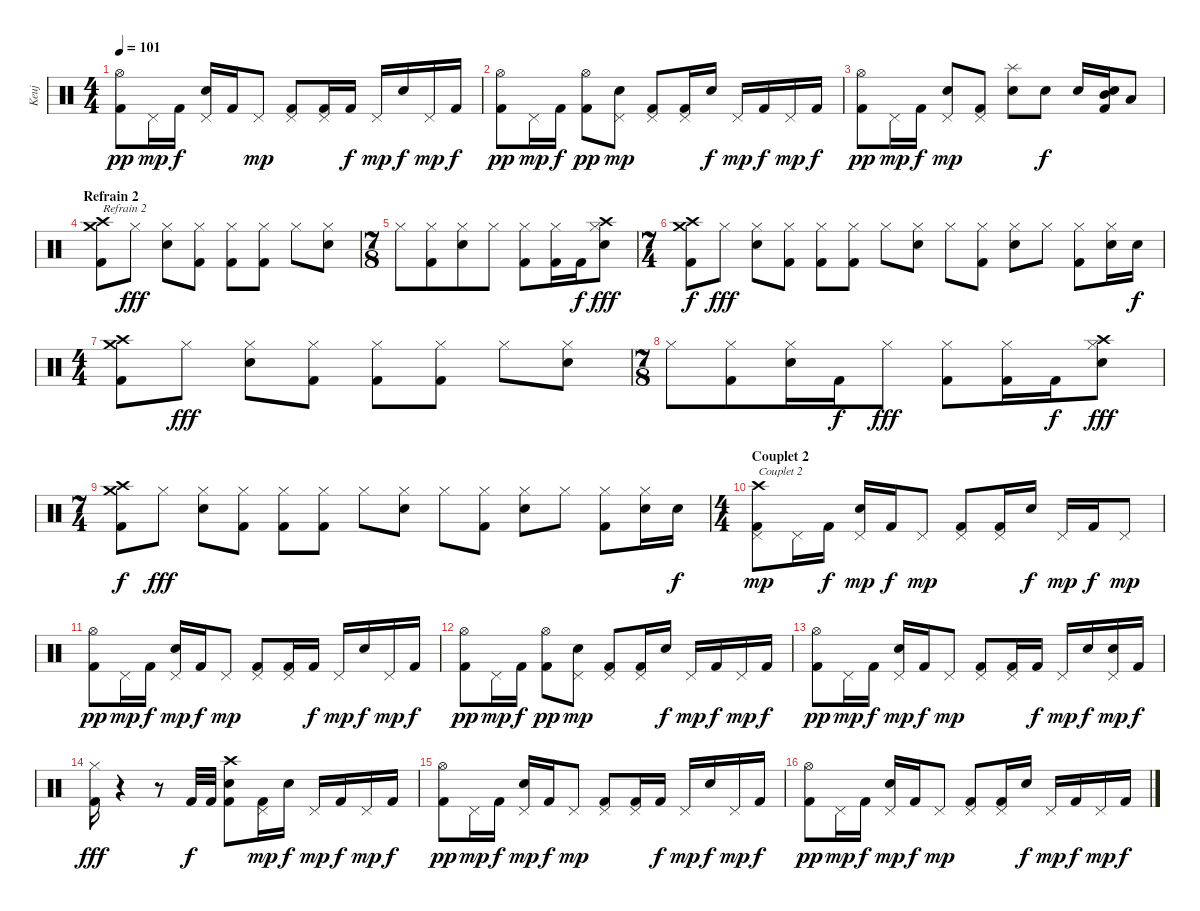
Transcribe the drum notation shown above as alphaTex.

\track ("Keuj" "Keuj") {instrument percussion}
\staff {score}
\articulation defaults
\ts (4 4)
\tempo 101
\clef neutral
\ks c
("Hi-Hat (open)" "Kick (hit) 2").8{dy pp} "Pedal Hi-Hat (hit)".16{dy mp} "Kick (hit) 2".16{dy f} ("Electric Snare (hit)" "Pedal Hi-Hat (hit)").16 "Kick (hit) 2".16 "Pedal Hi-Hat (hit)".8{dy mp} ("Pedal Hi-Hat (hit)" "Kick (hit) 2").8 ("Pedal Hi-Hat (hit)" "Kick (hit) 2").16 "Kick (hit) 2".16{dy f} "Pedal Hi-Hat (hit)".16{dy mp} "Electric Snare (hit)".16{dy f} "Pedal Hi-Hat (hit)".16{dy mp} "Kick (hit) 2".16{dy f} |
("Hi-Hat (open)" "Kick (hit) 2").8{dy pp} "Pedal Hi-Hat (hit)".16{dy mp} "Kick (hit) 2".16{dy f} ("Hi-Hat (open)" "Kick (hit) 2").8{dy pp} ("Electric Snare (hit)" "Pedal Hi-Hat (hit)").8{dy mp} ("Pedal Hi-Hat (hit)" "Kick (hit) 2").8 ("Pedal Hi-Hat (hit)" "Kick (hit) 2").16 "Electric Snare (hit)".16{dy f} "Pedal Hi-Hat (hit)".16{dy mp} "Kick (hit) 2".16{dy f} "Pedal Hi-Hat (hit)".16{dy mp} "Kick (hit) 2".16{dy f} |
("Hi-Hat (open)" "Kick (hit) 2").8{dy pp} "Pedal Hi-Hat (hit)".16{dy mp} "Kick (hit) 2".16{dy f} ("Electric Snare (hit)" "Pedal Hi-Hat (hit)").8{dy mp} ("Pedal Hi-Hat (hit)" "Kick (hit) 2").8 ("Splash (hit)" "Electric Snare (hit)").8 "Electric Snare (hit)".8{dy f} "Electric Snare (hit)".16 ("Mid Tom (hit)" "Electric Snare (hit)" "Kick (hit) 2").16 "Low Tom (hit)".8 |
\section ("" "Refrain 2")
("Crash medium (hit)" "Crash high (hit)" "Kick (hit) 2").8{txt "Refrain 2"} "Hi-Hat (closed)".8{dy fff} ("Electric Snare (hit)" "Hi-Hat (closed)").8 ("Hi-Hat (closed)" "Kick (hit) 2").8 ("Hi-Hat (closed)" "Kick (hit) 2").8 ("Hi-Hat (closed)" "Kick (hit) 2").8 "Hi-Hat (closed)".8 ("Electric Snare (hit)" "Hi-Hat (closed)").8 |
\ts (7 8)
"Hi-Hat (closed)".8 ("Hi-Hat (closed)" "Kick (hit) 2").8 ("Electric Snare (hit)" "Hi-Hat (closed)").8 "Hi-Hat (closed)".8 ("Hi-Hat (closed)" "Kick (hit) 2").8 ("Hi-Hat (closed)" "Kick (hit) 2").16 "Kick (hit) 2".16{dy f} ("Crash high (hit)" "Electric Snare (hit)" "Hi-Hat (closed)").8{dy fff} |
\ts (7 4)
("Crash medium (hit)" "Crash high (hit)" "Kick (hit) 2").8{dy f} "Hi-Hat (closed)".8{dy fff} ("Electric Snare (hit)" "Hi-Hat (closed)").8 ("Hi-Hat (closed)" "Kick (hit) 2").8 ("Hi-Hat (closed)" "Kick (hit) 2").8 ("Hi-Hat (closed)" "Kick (hit) 2").8 "Hi-Hat (closed)".8 ("Electric Snare (hit)" "Hi-Hat (closed)").8 "Hi-Hat (closed)".8 ("Hi-Hat (closed)" "Kick (hit) 2").8 ("Electric Snare (hit)" "Hi-Hat (closed)").8 "Hi-Hat (closed)".8 ("Hi-Hat (closed)" "Kick (hit) 2").8 ("Electric Snare (hit)" "Hi-Hat (closed)").16 "Electric Snare (hit)".16{dy f} |
\ts (4 4)
("Crash medium (hit)" "Crash high (hit)" "Kick (hit) 2").8 "Hi-Hat (closed)".8{dy fff} ("Electric Snare (hit)" "Hi-Hat (closed)").8 ("Hi-Hat (closed)" "Kick (hit) 2").8 ("Hi-Hat (closed)" "Kick (hit) 2").8 ("Hi-Hat (closed)" "Kick (hit) 2").8 "Hi-Hat (closed)".8 ("Electric Snare (hit)" "Hi-Hat (closed)").8 |
\ts (7 8)
"Hi-Hat (closed)".8 ("Hi-Hat (closed)" "Kick (hit) 2").8 ("Electric Snare (hit)" "Hi-Hat (closed)").16 "Kick (hit) 2".16{dy f} "Hi-Hat (closed)".8{dy fff} ("Hi-Hat (closed)" "Kick (hit) 2").8 ("Hi-Hat (closed)" "Kick (hit) 2").16 "Kick (hit) 2".16{dy f} ("Crash high (hit)" "Electric Snare (hit)" "Hi-Hat (closed)").8{dy fff} |
\ts (7 4)
("Crash medium (hit)" "Crash high (hit)" "Kick (hit) 2").8{dy f} "Hi-Hat (closed)".8{dy fff} ("Electric Snare (hit)" "Hi-Hat (closed)").8 ("Hi-Hat (closed)" "Kick (hit) 2").8 ("Hi-Hat (closed)" "Kick (hit) 2").8 ("Hi-Hat (closed)" "Kick (hit) 2").8 "Hi-Hat (closed)".8 ("Electric Snare (hit)" "Hi-Hat (closed)").8 "Hi-Hat (closed)".8 ("Hi-Hat (closed)" "Kick (hit) 2").8 ("Electric Snare (hit)" "Hi-Hat (closed)").8 "Hi-Hat (closed)".8 ("Hi-Hat (closed)" "Kick (hit) 2").8 ("Electric Snare (hit)" "Hi-Hat (closed)").16 "Electric Snare (hit)".16{dy f} |
\ts (4 4)
\section ("" "Couplet 2")
("Crash high (hit)" "Pedal Hi-Hat (hit)" "Kick (hit) 2").8{txt "Couplet 2" dy mp} "Pedal Hi-Hat (hit)".16 "Kick (hit) 2".16{dy f} ("Electric Snare (hit)" "Pedal Hi-Hat (hit)").16{dy mp} "Kick (hit) 2".16{dy f} "Pedal Hi-Hat (hit)".8{dy mp} ("Pedal Hi-Hat (hit)" "Kick (hit) 2").8 ("Pedal Hi-Hat (hit)" "Kick (hit) 2").16 "Electric Snare (hit)".16{dy f} "Pedal Hi-Hat (hit)".16{dy mp} "Kick (hit) 2".16{dy f} "Pedal Hi-Hat (hit)".8{dy mp} |
("Hi-Hat (open)" "Kick (hit) 2").8{dy pp} "Pedal Hi-Hat (hit)".16{dy mp} "Kick (hit) 2".16{dy f} ("Electric Snare (hit)" "Pedal Hi-Hat (hit)").16{dy mp} "Kick (hit) 2".16{dy f} "Pedal Hi-Hat (hit)".8{dy mp} ("Pedal Hi-Hat (hit)" "Kick (hit) 2").8 ("Pedal Hi-Hat (hit)" "Kick (hit) 2").16 "Kick (hit) 2".16{dy f} "Pedal Hi-Hat (hit)".16{dy mp} "Electric Snare (hit)".16{dy f} "Pedal Hi-Hat (hit)".16{dy mp} "Kick (hit) 2".16{dy f} |
("Hi-Hat (open)" "Kick (hit) 2").8{dy pp} "Pedal Hi-Hat (hit)".16{dy mp} "Kick (hit) 2".16{dy f} ("Hi-Hat (open)" "Kick (hit) 2").8{dy pp} ("Electric Snare (hit)" "Pedal Hi-Hat (hit)").8{dy mp} ("Pedal Hi-Hat (hit)" "Kick (hit) 2").8 ("Pedal Hi-Hat (hit)" "Kick (hit) 2").16 "Electric Snare (hit)".16{dy f} "Pedal Hi-Hat (hit)".16{dy mp} "Kick (hit) 2".16{dy f} "Pedal Hi-Hat (hit)".16{dy mp} "Kick (hit) 2".16{dy f} |
("Hi-Hat (open)" "Kick (hit) 2").8{dy pp} "Pedal Hi-Hat (hit)".16{dy mp} "Kick (hit) 2".16{dy f} ("Electric Snare (hit)" "Pedal Hi-Hat (hit)").16{dy mp} "Kick (hit) 2".16{dy f} "Pedal Hi-Hat (hit)".8{dy mp} ("Pedal Hi-Hat (hit)" "Kick (hit) 2").8 ("Pedal Hi-Hat (hit)" "Kick (hit) 2").16 "Kick (hit) 2".16{dy f} "Pedal Hi-Hat (hit)".16{dy mp} "Electric Snare (hit)".16{dy f} ("Electric Snare (hit)" "Pedal Hi-Hat (hit)").16{dy mp} "Kick (hit) 2".16{dy f} |
("Hi-Hat (closed)" "Kick (hit) 2").16{dy fff} r.4 r.8 "Kick (hit) 2".32{dy f} "Kick (hit) 2".32 ("Crash high (hit)" "Electric Snare (hit)" "Kick (hit) 2").8 ("Pedal Hi-Hat (hit)" "Kick (hit) 2").16{dy mp} "Electric Snare (hit)".16{dy f} "Pedal Hi-Hat (hit)".16{dy mp} "Kick (hit) 2".16{dy f} "Pedal Hi-Hat (hit)".16{dy mp} "Kick (hit) 2".16{dy f} |
("Hi-Hat (open)" "Kick (hit) 2").8{dy pp} "Pedal Hi-Hat (hit)".16{dy mp} "Kick (hit) 2".16{dy f} ("Electric Snare (hit)" "Pedal Hi-Hat (hit)").16{dy mp} "Kick (hit) 2".16{dy f} "Pedal Hi-Hat (hit)".8{dy mp} ("Pedal Hi-Hat (hit)" "Kick (hit) 2").8 ("Pedal Hi-Hat (hit)" "Kick (hit) 2").16 "Kick (hit) 2".16{dy f} "Pedal Hi-Hat (hit)".16{dy mp} "Electric Snare (hit)".16{dy f} "Pedal Hi-Hat (hit)".16{dy mp} "Kick (hit) 2".16{dy f} |
("Hi-Hat (open)" "Kick (hit) 2").8{dy pp} "Pedal Hi-Hat (hit)".16{dy mp} "Kick (hit) 2".16{dy f} ("Electric Snare (hit)" "Pedal Hi-Hat (hit)").16{dy mp} "Kick (hit) 2".16{dy f} "Pedal Hi-Hat (hit)".8{dy mp} ("Pedal Hi-Hat (hit)" "Kick (hit) 2").8 ("Pedal Hi-Hat (hit)" "Kick (hit) 2").16 "Electric Snare (hit)".16{dy f} "Pedal Hi-Hat (hit)".16{dy mp} "Kick (hit) 2".16{dy f} "Pedal Hi-Hat (hit)".16{dy mp} "Kick (hit) 2".16{dy f}
